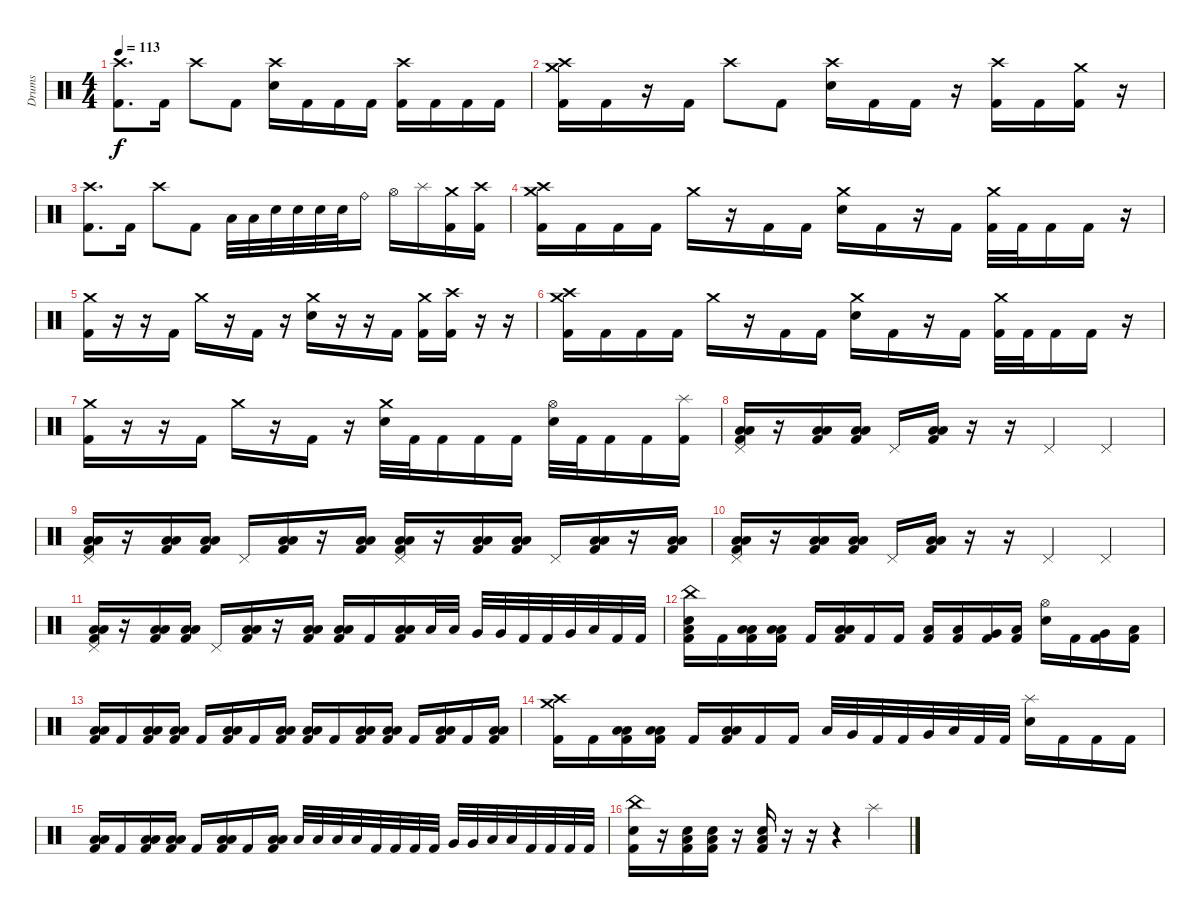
\track ("Drums" "Drums") {instrument percussion}
\staff {score}
\articulation defaults
\ts (4 4)
\tempo 113
\clef neutral
\ks c
("Crash high (hit)" "Kick (hit) 2").8{d dy f} "Kick (hit) 2".16 "Crash high (hit)".8 "Kick (hit) 2".8 ("Crash high (hit)" "Snare (hit) 2").16 "Kick (hit) 2".16 "Kick (hit) 2".16 "Kick (hit) 2".16 ("Crash high (hit)" "Kick (hit) 2").16 "Kick (hit) 2".16 "Kick (hit) 2".16 "Kick (hit) 2".16 |
("Crash high (hit)" "Crash medium (hit)" "Kick (hit) 2").16 "Kick (hit) 2".16 r.16 "Kick (hit) 2".16 "Crash high (hit)".8 "Kick (hit) 2".8 ("Crash high (hit)" "Snare (hit) 2").16 "Kick (hit) 2".16 "Kick (hit) 2".16 r.16 ("Crash high (hit)" "Kick (hit) 2").16 "Kick (hit) 2".16 ("Crash medium (hit)" "Kick (hit) 2").16 r.16 |
("Crash high (hit)" "Kick (hit) 2").8{d} "Kick (hit) 2".16 "Crash high (hit)".8 "Kick (hit) 2".8 "Low Tom (hit)".32 "Low Tom (hit)".32 "Snare (hit) 2".32 "Snare (hit) 2".32 "Snare (hit) 2".32 "Snare (hit) 2".32 "Ride (bell)".16 "Hi-Hat (open)".16 "Splash (hit)".16 ("Crash medium (hit)" "Kick (hit) 2").16 ("Crash high (hit)" "Kick (hit) 2").16 |
("Crash medium (hit)" "Crash high (hit)" "Kick (hit) 2").16 "Kick (hit) 2".16 "Kick (hit) 2".16 "Kick (hit) 2".16 "Crash medium (hit)".16 r.16 "Kick (hit) 2".16 "Kick (hit) 2".16 ("Crash medium (hit)" "Snare (hit) 2").16 "Kick (hit) 2".16 r.16 "Kick (hit) 2".16 ("Crash medium (hit)" "Kick (hit) 2").32 "Kick (hit) 2".32 "Kick (hit) 2".16 "Kick (hit) 2".16 r.16 |
("Crash medium (hit)" "Kick (hit) 2").16 r.16 r.16 "Kick (hit) 2".16 "Crash medium (hit)".16 r.16 "Kick (hit) 2".16 r.16 ("Crash medium (hit)" "Snare (hit) 2").16 r.16 r.16 "Kick (hit) 2".16 ("Crash medium (hit)" "Kick (hit) 2").16 ("Crash high (hit)" "Kick (hit) 2").16 r.16 r.16 |
("Crash medium (hit)" "Crash high (hit)" "Kick (hit) 2").16 "Kick (hit) 2".16 "Kick (hit) 2".16 "Kick (hit) 2".16 "Crash medium (hit)".16 r.16 "Kick (hit) 2".16 "Kick (hit) 2".16 ("Crash medium (hit)" "Snare (hit) 2").16 "Kick (hit) 2".16 r.16 "Kick (hit) 2".16 ("Crash medium (hit)" "Kick (hit) 2").32 "Kick (hit) 2".32 "Kick (hit) 2".16 "Kick (hit) 2".16 r.16 |
("Crash medium (hit)" "Kick (hit) 2").16 r.16 r.16 "Kick (hit) 2".16 "Crash medium (hit)".16 r.16 "Kick (hit) 2".16 r.16 ("Crash medium (hit)" "Snare (hit) 2").32 "Kick (hit) 2".32 "Kick (hit) 2".16 "Kick (hit) 2".16 "Kick (hit) 2".16 ("Hi-Hat (open)" "Snare (hit) 2").32 "Kick (hit) 2".32 "Kick (hit) 2".16 "Kick (hit) 2".16 ("Splash (hit)" "Kick (hit) 2").16 |
("Pedal Hi-Hat (hit)" "Low Tom (hit)" "Low Floor Tom (hit)" "Kick (hit) 2").16 r.16 ("Low Tom (hit)" "Low Floor Tom (hit)" "Kick (hit) 2").16 ("Low Tom (hit)" "Low Floor Tom (hit)" "Kick (hit) 2").16 "Pedal Hi-Hat (hit)".16 ("Low Tom (hit)" "Low Floor Tom (hit)" "Kick (hit) 2").16 r.16 r.16 "Pedal Hi-Hat (hit)".4 "Pedal Hi-Hat (hit)".4 |
("Pedal Hi-Hat (hit)" "Low Tom (hit)" "Low Floor Tom (hit)" "Kick (hit) 2").16 r.16 ("Low Tom (hit)" "Low Floor Tom (hit)" "Kick (hit) 2").16 ("Low Tom (hit)" "Low Floor Tom (hit)" "Kick (hit) 2").16 "Pedal Hi-Hat (hit)".16 ("Low Tom (hit)" "Low Floor Tom (hit)" "Kick (hit) 2").16 r.16 ("Low Tom (hit)" "Low Floor Tom (hit)" "Kick (hit) 2").16 ("Pedal Hi-Hat (hit)" "Low Tom (hit)" "Low Floor Tom (hit)" "Kick (hit) 2").16 r.16 ("Low Tom (hit)" "Low Floor Tom (hit)" "Kick (hit) 2").16 ("Low Tom (hit)" "Low Floor Tom (hit)" "Kick (hit) 2").16 "Pedal Hi-Hat (hit)".16 ("Low Tom (hit)" "Low Floor Tom (hit)" "Kick (hit) 2").16 r.16 ("Low Tom (hit)" "Low Floor Tom (hit)" "Kick (hit) 2").16 |
("Pedal Hi-Hat (hit)" "Low Tom (hit)" "Low Floor Tom (hit)" "Kick (hit) 2").16 r.16 ("Low Tom (hit)" "Low Floor Tom (hit)" "Kick (hit) 2").16 ("Low Tom (hit)" "Low Floor Tom (hit)" "Kick (hit) 2").16 "Pedal Hi-Hat (hit)".16 ("Low Tom (hit)" "Low Floor Tom (hit)" "Kick (hit) 2").16 r.16 r.16 "Pedal Hi-Hat (hit)".4 "Pedal Hi-Hat (hit)".4 |
("Pedal Hi-Hat (hit)" "Low Tom (hit)" "Low Floor Tom (hit)" "Kick (hit) 2").16 r.16 ("Low Tom (hit)" "Low Floor Tom (hit)" "Kick (hit) 2").16 ("Low Tom (hit)" "Low Floor Tom (hit)" "Kick (hit) 2").16 "Pedal Hi-Hat (hit)".16 ("Low Tom (hit)" "Low Floor Tom (hit)" "Kick (hit) 2").16 r.16 ("Low Tom (hit)" "Low Floor Tom (hit)" "Kick (hit) 2").16 ("Low Tom (hit)" "Low Floor Tom (hit)" "Kick (hit) 2").16 "Kick (hit) 2".16 ("Low Tom (hit)" "Low Floor Tom (hit)" "Kick (hit) 2").16 "Low Tom (hit)".32 "Low Tom (hit)".32 "Very Low Tom (hit)".32 "Very Low Tom (hit)".32 "Kick (hit) 2".32 "Kick (hit) 2".32 "Very Low Tom (hit)".32 "Low Floor Tom (hit)".32 "Kick (hit) 2".32 "Kick (hit) 2".32 |
("China (hit)" "Snare (hit) 2" "Low Floor Tom (hit)" "Kick (hit) 2").16 "Kick (hit) 2".16 ("Low Tom (hit)" "Low Floor Tom (hit)" "Kick (hit) 2").16 ("Low Tom (hit)" "Low Floor Tom (hit)" "Kick (hit) 2").16 "Kick (hit) 2".16 ("Low Tom (hit)" "Low Floor Tom (hit)" "Kick (hit) 2").16 "Kick (hit) 2".16 "Kick (hit) 2".16 ("Low Tom (hit)" "Kick (hit) 2").16 ("Low Tom (hit)" "Kick (hit) 2").16 ("Very Low Tom (hit)" "Kick (hit) 2").16 ("Low Floor Tom (hit)" "Kick (hit) 2").16 ("Hi-Hat (open)" "Snare (hit) 2").16 "Kick (hit) 2".16 ("Very Low Tom (hit)" "Kick (hit) 2").16 ("Low Floor Tom (hit)" "Kick (hit) 2").16 |
("Low Tom (hit)" "Low Floor Tom (hit)" "Kick (hit) 2").16 "Kick (hit) 2".16 ("Low Tom (hit)" "Low Floor Tom (hit)" "Kick (hit) 2").16 ("Low Tom (hit)" "Low Floor Tom (hit)" "Kick (hit) 2").16 "Kick (hit) 2".16 ("Low Tom (hit)" "Low Floor Tom (hit)" "Kick (hit) 2").16 "Kick (hit) 2".16 ("Low Tom (hit)" "Low Floor Tom (hit)" "Kick (hit) 2").16 ("Low Tom (hit)" "Low Floor Tom (hit)" "Kick (hit) 2").16 "Kick (hit) 2".16 ("Low Tom (hit)" "Low Floor Tom (hit)" "Kick (hit) 2").16 ("Low Tom (hit)" "Low Floor Tom (hit)" "Kick (hit) 2").16 "Kick (hit) 2".16 ("Low Tom (hit)" "Low Floor Tom (hit)" "Kick (hit) 2").16 "Kick (hit) 2".16 ("Low Tom (hit)" "Low Floor Tom (hit)" "Kick (hit) 2").16 |
("Crash medium (hit)" "Crash high (hit)" "Kick (hit) 2").16 "Kick (hit) 2".16 ("Low Tom (hit)" "Low Floor Tom (hit)" "Kick (hit) 2").16 ("Low Tom (hit)" "Low Floor Tom (hit)" "Kick (hit) 2").16 "Kick (hit) 2".16 ("Low Tom (hit)" "Low Floor Tom (hit)" "Kick (hit) 2").16 "Kick (hit) 2".16 "Kick (hit) 2".16 "Low Tom (hit)".32 "Very Low Tom (hit)".32 "Kick (hit) 2".32 "Kick (hit) 2".32 "Very Low Tom (hit)".32 "Low Floor Tom (hit)".32 "Kick (hit) 2".32 "Kick (hit) 2".32 ("Splash (hit)" "Snare (hit) 2").16 "Kick (hit) 2".16 "Kick (hit) 2".16 "Kick (hit) 2".16 |
("Low Tom (hit)" "Low Floor Tom (hit)" "Kick (hit) 2").16 "Kick (hit) 2".16 ("Low Tom (hit)" "Low Floor Tom (hit)" "Kick (hit) 2").16 ("Low Tom (hit)" "Low Floor Tom (hit)" "Kick (hit) 2").16 "Kick (hit) 2".16 ("Low Tom (hit)" "Low Floor Tom (hit)" "Kick (hit) 2").16 "Kick (hit) 2".16 ("Low Tom (hit)" "Low Floor Tom (hit)" "Kick (hit) 2").16 "Low Tom (hit)".32 "Low Tom (hit)".32 "Low Tom (hit)".32 "Low Tom (hit)".32 "Kick (hit) 2".32 "Kick (hit) 2".32 "Kick (hit) 2".32 "Kick (hit) 2".32 "Very Low Tom (hit)".32 "Very Low Tom (hit)".32 "Low Floor Tom (hit)".32 "Low Floor Tom (hit)".32 "Kick (hit) 2".32 "Kick (hit) 2".32 "Kick (hit) 2".32 "Kick (hit) 2".32 |
("China (hit)" "Snare (hit) 2" "Kick (hit) 2").16 r.16 ("Snare (hit) 2" "Low Floor Tom (hit)" "Kick (hit) 2").16 ("Snare (hit) 2" "Low Floor Tom (hit)" "Kick (hit) 2").16 r.16 ("Snare (hit) 2" "Low Floor Tom (hit)" "Kick (hit) 2").16 r.16 r.16 r.4 "Splash (hit)".4
